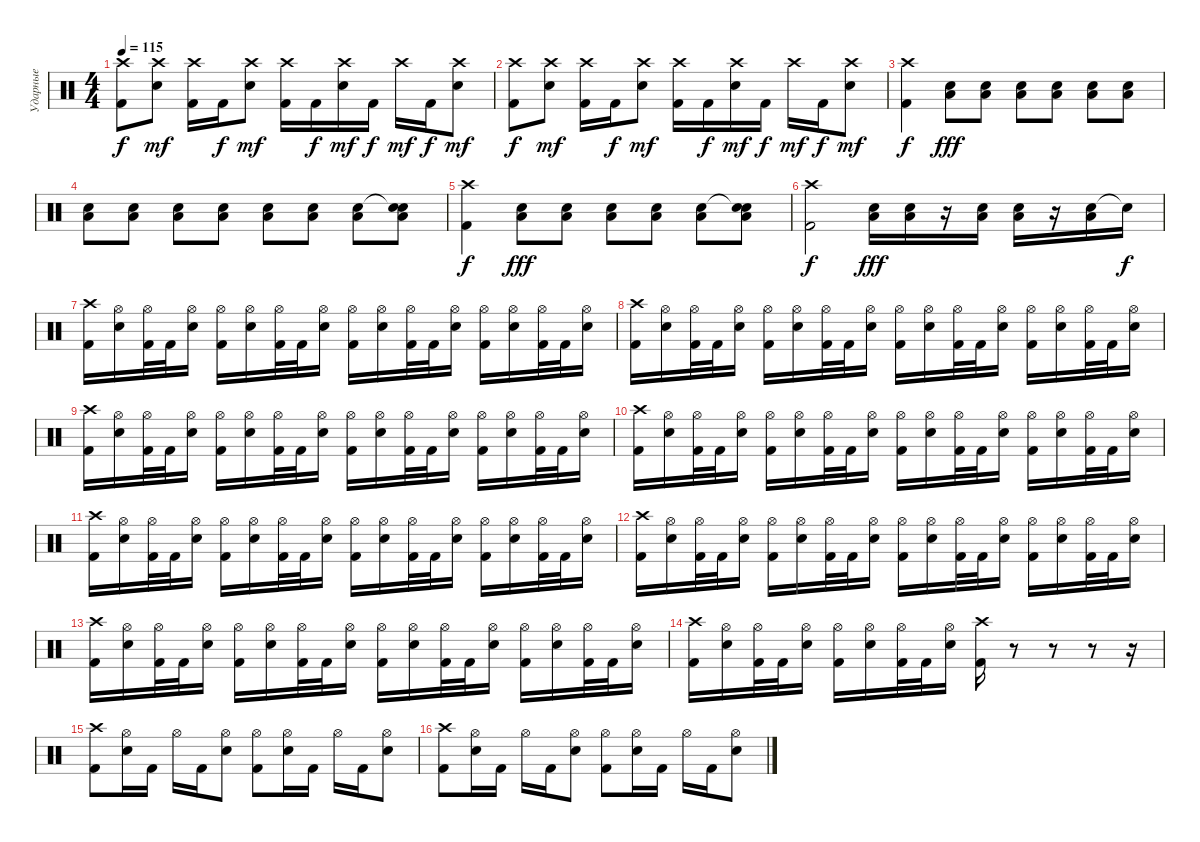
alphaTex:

\track ("Ударные" "Ударные") {instrument percussion}
\staff {score}
\articulation defaults
\ts (4 4)
\tempo 115
\clef neutral
\ks c
("Crash high (hit)" "Kick (hit) 2").8{dy f} ("Crash high (hit)" "Electric Snare (hit)").8{dy mf} ("Crash high (hit)" "Kick (hit) 2").16 "Kick (hit) 2".16{dy f} ("Crash high (hit)" "Electric Snare (hit)").8{dy mf} ("Crash high (hit)" "Kick (hit) 2").16 "Kick (hit) 2".16{dy f} ("Crash high (hit)" "Electric Snare (hit)").16{dy mf} "Kick (hit) 2".16{dy f} "Crash high (hit)".16{dy mf} "Kick (hit) 2".16{dy f} ("Crash high (hit)" "Electric Snare (hit)").8{dy mf} |
("Crash high (hit)" "Kick (hit) 2").8{dy f} ("Crash high (hit)" "Electric Snare (hit)").8{dy mf} ("Crash high (hit)" "Kick (hit) 2").16 "Kick (hit) 2".16{dy f} ("Crash high (hit)" "Electric Snare (hit)").8{dy mf} ("Crash high (hit)" "Kick (hit) 2").16 "Kick (hit) 2".16{dy f} ("Crash high (hit)" "Electric Snare (hit)").16{dy mf} "Kick (hit) 2".16{dy f} "Crash high (hit)".16{dy mf} "Kick (hit) 2".16{dy f} ("Crash high (hit)" "Electric Snare (hit)").8{dy mf} |
("Crash high (hit)" "Kick (hit) 2").4{dy f} ("Electric Snare (hit)" "Low Floor Tom (hit)").8{dy fff} ("Electric Snare (hit)" "Low Floor Tom (hit)").8 ("Electric Snare (hit)" "Low Floor Tom (hit)").8 ("Electric Snare (hit)" "Low Floor Tom (hit)").8 ("Electric Snare (hit)" "Low Floor Tom (hit)").8 ("Electric Snare (hit)" "Low Floor Tom (hit)").8 |
("Electric Snare (hit)" "Low Floor Tom (hit)").8 ("Electric Snare (hit)" "Low Floor Tom (hit)").8 ("Electric Snare (hit)" "Low Floor Tom (hit)").8 ("Electric Snare (hit)" "Low Floor Tom (hit)").8 ("Electric Snare (hit)" "Low Floor Tom (hit)").8 ("Electric Snare (hit)" "Low Floor Tom (hit)").8 ("Electric Snare (hit)" "Low Floor Tom (hit)").8 ("Snare (hit)"{t} "Electric Snare (hit)" "Low Floor Tom (hit)").8 |
("Crash high (hit)" "Kick (hit) 2").4{dy f} ("Electric Snare (hit)" "Low Floor Tom (hit)").8{dy fff} ("Electric Snare (hit)" "Low Floor Tom (hit)").8 ("Electric Snare (hit)" "Low Floor Tom (hit)").8 ("Electric Snare (hit)" "Low Floor Tom (hit)").8 ("Electric Snare (hit)" "Low Floor Tom (hit)").8 ("Snare (hit)"{t} "Electric Snare (hit)" "Low Floor Tom (hit)").8 |
("Crash high (hit)" "Kick (hit) 2").2{dy f} ("Electric Snare (hit)" "Low Floor Tom (hit)").16{dy fff} ("Electric Snare (hit)" "Low Floor Tom (hit)").16 r.16 ("Electric Snare (hit)" "Low Floor Tom (hit)").16 ("Electric Snare (hit)" "Low Floor Tom (hit)").16 r.16 ("Electric Snare (hit)" "Low Floor Tom (hit)").16 "Snare (hit)"{t}.16{dy f} |
("Crash high (hit)" "Kick (hit) 2").16 ("Hi-Hat (open)" "Electric Snare (hit)").16 ("Hi-Hat (open)" "Kick (hit) 2").32 "Kick (hit) 2".32 ("Hi-Hat (open)" "Electric Snare (hit)").16 ("Hi-Hat (open)" "Kick (hit) 2").16 ("Hi-Hat (open)" "Electric Snare (hit)").16 ("Hi-Hat (open)" "Kick (hit) 2").32 "Kick (hit) 2".32 ("Hi-Hat (open)" "Electric Snare (hit)").16 ("Hi-Hat (open)" "Kick (hit) 2").16 ("Hi-Hat (open)" "Electric Snare (hit)").16 ("Hi-Hat (open)" "Kick (hit) 2").32 "Kick (hit) 2".32 ("Hi-Hat (open)" "Electric Snare (hit)").16 ("Hi-Hat (open)" "Kick (hit) 2").16 ("Hi-Hat (open)" "Electric Snare (hit)").16 ("Hi-Hat (open)" "Kick (hit) 2").32 "Kick (hit) 2".32 ("Hi-Hat (open)" "Electric Snare (hit)").16 |
("Crash high (hit)" "Kick (hit) 2").16 ("Hi-Hat (open)" "Electric Snare (hit)").16 ("Hi-Hat (open)" "Kick (hit) 2").32 "Kick (hit) 2".32 ("Hi-Hat (open)" "Electric Snare (hit)").16 ("Hi-Hat (open)" "Kick (hit) 2").16 ("Hi-Hat (open)" "Electric Snare (hit)").16 ("Hi-Hat (open)" "Kick (hit) 2").32 "Kick (hit) 2".32 ("Hi-Hat (open)" "Electric Snare (hit)").16 ("Hi-Hat (open)" "Kick (hit) 2").16 ("Hi-Hat (open)" "Electric Snare (hit)").16 ("Hi-Hat (open)" "Kick (hit) 2").32 "Kick (hit) 2".32 ("Hi-Hat (open)" "Electric Snare (hit)").16 ("Hi-Hat (open)" "Kick (hit) 2").16 ("Hi-Hat (open)" "Electric Snare (hit)").16 ("Hi-Hat (open)" "Kick (hit) 2").32 "Kick (hit) 2".32 ("Hi-Hat (open)" "Electric Snare (hit)").16 |
("Crash high (hit)" "Kick (hit) 2").16 ("Hi-Hat (open)" "Electric Snare (hit)").16 ("Hi-Hat (open)" "Kick (hit) 2").32 "Kick (hit) 2".32 ("Hi-Hat (open)" "Electric Snare (hit)").16 ("Hi-Hat (open)" "Kick (hit) 2").16 ("Hi-Hat (open)" "Electric Snare (hit)").16 ("Hi-Hat (open)" "Kick (hit) 2").32 "Kick (hit) 2".32 ("Hi-Hat (open)" "Electric Snare (hit)").16 ("Hi-Hat (open)" "Kick (hit) 2").16 ("Hi-Hat (open)" "Electric Snare (hit)").16 ("Hi-Hat (open)" "Kick (hit) 2").32 "Kick (hit) 2".32 ("Hi-Hat (open)" "Electric Snare (hit)").16 ("Hi-Hat (open)" "Kick (hit) 2").16 ("Hi-Hat (open)" "Electric Snare (hit)").16 ("Hi-Hat (open)" "Kick (hit) 2").32 "Kick (hit) 2".32 ("Hi-Hat (open)" "Electric Snare (hit)").16 |
("Crash high (hit)" "Kick (hit) 2").16 ("Hi-Hat (open)" "Electric Snare (hit)").16 ("Hi-Hat (open)" "Kick (hit) 2").32 "Kick (hit) 2".32 ("Hi-Hat (open)" "Electric Snare (hit)").16 ("Hi-Hat (open)" "Kick (hit) 2").16 ("Hi-Hat (open)" "Electric Snare (hit)").16 ("Hi-Hat (open)" "Kick (hit) 2").32 "Kick (hit) 2".32 ("Hi-Hat (open)" "Electric Snare (hit)").16 ("Hi-Hat (open)" "Kick (hit) 2").16 ("Hi-Hat (open)" "Electric Snare (hit)").16 ("Hi-Hat (open)" "Kick (hit) 2").32 "Kick (hit) 2".32 ("Hi-Hat (open)" "Electric Snare (hit)").16 ("Hi-Hat (open)" "Kick (hit) 2").16 ("Hi-Hat (open)" "Electric Snare (hit)").16 ("Hi-Hat (open)" "Kick (hit) 2").32 "Kick (hit) 2".32 ("Hi-Hat (open)" "Electric Snare (hit)").16 |
("Crash high (hit)" "Kick (hit) 2").16 ("Hi-Hat (open)" "Electric Snare (hit)").16 ("Hi-Hat (open)" "Kick (hit) 2").32 "Kick (hit) 2".32 ("Hi-Hat (open)" "Electric Snare (hit)").16 ("Hi-Hat (open)" "Kick (hit) 2").16 ("Hi-Hat (open)" "Electric Snare (hit)").16 ("Hi-Hat (open)" "Kick (hit) 2").32 "Kick (hit) 2".32 ("Hi-Hat (open)" "Electric Snare (hit)").16 ("Hi-Hat (open)" "Kick (hit) 2").16 ("Hi-Hat (open)" "Electric Snare (hit)").16 ("Hi-Hat (open)" "Kick (hit) 2").32 "Kick (hit) 2".32 ("Hi-Hat (open)" "Electric Snare (hit)").16 ("Hi-Hat (open)" "Kick (hit) 2").16 ("Hi-Hat (open)" "Electric Snare (hit)").16 ("Hi-Hat (open)" "Kick (hit) 2").32 "Kick (hit) 2".32 ("Hi-Hat (open)" "Electric Snare (hit)").16 |
("Crash high (hit)" "Kick (hit) 2").16 ("Hi-Hat (open)" "Electric Snare (hit)").16 ("Hi-Hat (open)" "Kick (hit) 2").32 "Kick (hit) 2".32 ("Hi-Hat (open)" "Electric Snare (hit)").16 ("Hi-Hat (open)" "Kick (hit) 2").16 ("Hi-Hat (open)" "Electric Snare (hit)").16 ("Hi-Hat (open)" "Kick (hit) 2").32 "Kick (hit) 2".32 ("Hi-Hat (open)" "Electric Snare (hit)").16 ("Hi-Hat (open)" "Kick (hit) 2").16 ("Hi-Hat (open)" "Electric Snare (hit)").16 ("Hi-Hat (open)" "Kick (hit) 2").32 "Kick (hit) 2".32 ("Hi-Hat (open)" "Electric Snare (hit)").16 ("Hi-Hat (open)" "Kick (hit) 2").16 ("Hi-Hat (open)" "Electric Snare (hit)").16 ("Hi-Hat (open)" "Kick (hit) 2").32 "Kick (hit) 2".32 ("Hi-Hat (open)" "Electric Snare (hit)").16 |
("Crash high (hit)" "Kick (hit) 2").16 ("Hi-Hat (open)" "Electric Snare (hit)").16 ("Hi-Hat (open)" "Kick (hit) 2").32 "Kick (hit) 2".32 ("Hi-Hat (open)" "Electric Snare (hit)").16 ("Hi-Hat (open)" "Kick (hit) 2").16 ("Hi-Hat (open)" "Electric Snare (hit)").16 ("Hi-Hat (open)" "Kick (hit) 2").32 "Kick (hit) 2".32 ("Hi-Hat (open)" "Electric Snare (hit)").16 ("Hi-Hat (open)" "Kick (hit) 2").16 ("Hi-Hat (open)" "Electric Snare (hit)").16 ("Hi-Hat (open)" "Kick (hit) 2").32 "Kick (hit) 2".32 ("Hi-Hat (open)" "Electric Snare (hit)").16 ("Hi-Hat (open)" "Kick (hit) 2").16 ("Hi-Hat (open)" "Electric Snare (hit)").16 ("Hi-Hat (open)" "Kick (hit) 2").32 "Kick (hit) 2".32 ("Hi-Hat (open)" "Electric Snare (hit)").16 |
("Crash high (hit)" "Kick (hit) 2").16 ("Hi-Hat (open)" "Electric Snare (hit)").16 ("Hi-Hat (open)" "Kick (hit) 2").32 "Kick (hit) 2".32 ("Hi-Hat (open)" "Electric Snare (hit)").16 ("Hi-Hat (open)" "Kick (hit) 2").16 ("Hi-Hat (open)" "Electric Snare (hit)").16 ("Hi-Hat (open)" "Kick (hit) 2").32 "Kick (hit) 2".32 ("Hi-Hat (open)" "Electric Snare (hit)").16 ("Crash high (hit)" "Kick (hit) 2").16 r.8 r.8 r.8 r.16 |
("Crash high (hit)" "Kick (hit) 2").8 ("Hi-Hat (open)" "Electric Snare (hit)").16 "Kick (hit) 2".16 "Hi-Hat (open)".16 "Kick (hit) 2".16 ("Hi-Hat (open)" "Electric Snare (hit)").8 ("Hi-Hat (open)" "Kick (hit) 2").8 ("Hi-Hat (open)" "Electric Snare (hit)").16 "Kick (hit) 2".16 "Hi-Hat (open)".16 "Kick (hit) 2".16 ("Hi-Hat (open)" "Electric Snare (hit)").8 |
("Crash high (hit)" "Kick (hit) 2").8 ("Hi-Hat (open)" "Electric Snare (hit)").16 "Kick (hit) 2".16 "Hi-Hat (open)".16 "Kick (hit) 2".16 ("Hi-Hat (open)" "Electric Snare (hit)").8 ("Hi-Hat (open)" "Kick (hit) 2").8 ("Hi-Hat (open)" "Electric Snare (hit)").16 "Kick (hit) 2".16 "Hi-Hat (open)".16 "Kick (hit) 2".16 ("Hi-Hat (open)" "Electric Snare (hit)").8
